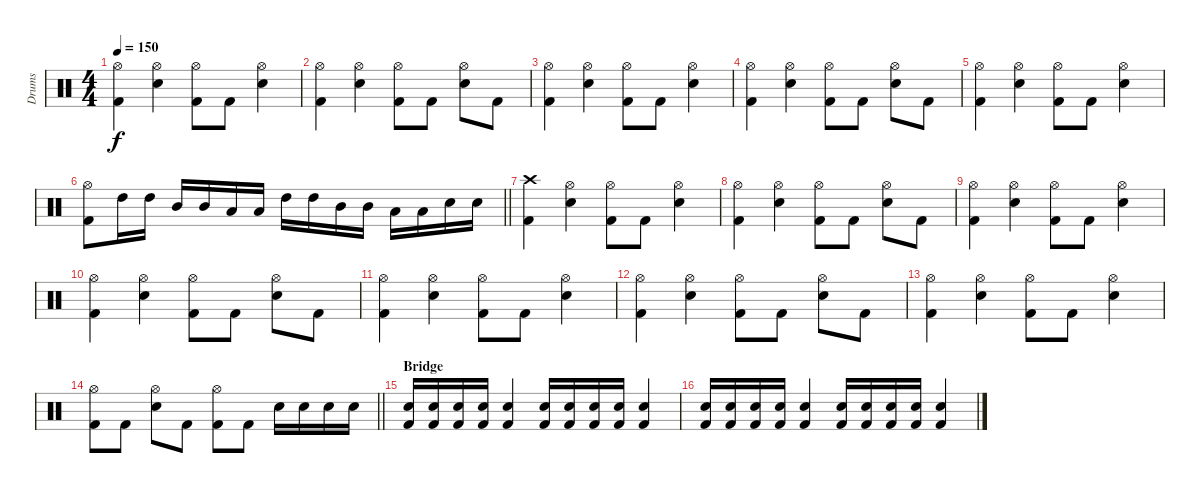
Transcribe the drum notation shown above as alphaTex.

\track ("Drums" "Drums") {instrument percussion}
\staff {score}
\articulation defaults
\ts (4 4)
\tempo 150
\clef neutral
\ks c
("Hi-Hat (open)" "Kick (hit) 2").4{dy f} ("Hi-Hat (open)" "Electric Snare (hit)").4 ("Hi-Hat (open)" "Kick (hit) 2").8 "Kick (hit) 2".8 ("Hi-Hat (open)" "Electric Snare (hit)").4 |
("Hi-Hat (open)" "Kick (hit) 2").4 ("Hi-Hat (open)" "Electric Snare (hit)").4 ("Hi-Hat (open)" "Kick (hit) 2").8 "Kick (hit) 2".8 ("Hi-Hat (open)" "Electric Snare (hit)").8 "Kick (hit) 2".8 |
("Hi-Hat (open)" "Kick (hit) 2").4 ("Hi-Hat (open)" "Electric Snare (hit)").4 ("Hi-Hat (open)" "Kick (hit) 2").8 "Kick (hit) 2".8 ("Hi-Hat (open)" "Electric Snare (hit)").4 |
("Hi-Hat (open)" "Kick (hit) 2").4 ("Hi-Hat (open)" "Electric Snare (hit)").4 ("Hi-Hat (open)" "Kick (hit) 2").8 "Kick (hit) 2".8 ("Hi-Hat (open)" "Electric Snare (hit)").8 "Kick (hit) 2".8 |
("Hi-Hat (open)" "Kick (hit) 2").4 ("Hi-Hat (open)" "Electric Snare (hit)").4 ("Hi-Hat (open)" "Kick (hit) 2").8 "Kick (hit) 2".8 ("Hi-Hat (open)" "Electric Snare (hit)").4 |
\barLineRight lightlight
("Hi-Hat (open)" "Kick (hit) 2").8 "High Tom (hit)".16 "High Tom (hit)".16 "Mid Tom (hit)".16 "Mid Tom (hit)".16 "Low Tom (hit)".16 "Low Tom (hit)".16 "High Tom (hit)".16 "High Tom (hit)".16 "Mid Tom (hit)".16 "Mid Tom (hit)".16 "Low Tom (hit)".16 "Low Tom (hit)".16 "Electric Snare (hit)".16 "Electric Snare (hit)".16 |
("Crash high (hit)" "Kick (hit) 2").4 ("Hi-Hat (open)" "Electric Snare (hit)").4 ("Hi-Hat (open)" "Kick (hit) 2").8 "Kick (hit) 2".8 ("Hi-Hat (open)" "Electric Snare (hit)").4 |
("Hi-Hat (open)" "Kick (hit) 2").4 ("Hi-Hat (open)" "Electric Snare (hit)").4 ("Hi-Hat (open)" "Kick (hit) 2").8 "Kick (hit) 2".8 ("Hi-Hat (open)" "Electric Snare (hit)").8 "Kick (hit) 2".8 |
("Hi-Hat (open)" "Kick (hit) 2").4 ("Hi-Hat (open)" "Electric Snare (hit)").4 ("Hi-Hat (open)" "Kick (hit) 2").8 "Kick (hit) 2".8 ("Hi-Hat (open)" "Electric Snare (hit)").4 |
("Hi-Hat (open)" "Kick (hit) 2").4 ("Hi-Hat (open)" "Electric Snare (hit)").4 ("Hi-Hat (open)" "Kick (hit) 2").8 "Kick (hit) 2".8 ("Hi-Hat (open)" "Electric Snare (hit)").8 "Kick (hit) 2".8 |
("Hi-Hat (open)" "Kick (hit) 2").4 ("Hi-Hat (open)" "Electric Snare (hit)").4 ("Hi-Hat (open)" "Kick (hit) 2").8 "Kick (hit) 2".8 ("Hi-Hat (open)" "Electric Snare (hit)").4 |
("Hi-Hat (open)" "Kick (hit) 2").4 ("Hi-Hat (open)" "Electric Snare (hit)").4 ("Hi-Hat (open)" "Kick (hit) 2").8 "Kick (hit) 2".8 ("Hi-Hat (open)" "Electric Snare (hit)").8 "Kick (hit) 2".8 |
("Hi-Hat (open)" "Kick (hit) 2").4 ("Hi-Hat (open)" "Electric Snare (hit)").4 ("Hi-Hat (open)" "Kick (hit) 2").8 "Kick (hit) 2".8 ("Hi-Hat (open)" "Electric Snare (hit)").4 |
\barLineRight lightlight
("Hi-Hat (open)" "Kick (hit) 2").8 "Kick (hit) 2".8 ("Hi-Hat (open)" "Electric Snare (hit)").8 "Kick (hit) 2".8 ("Hi-Hat (open)" "Kick (hit) 2").8 "Kick (hit) 2".8 "Electric Snare (hit)".16 "Electric Snare (hit)".16 "Electric Snare (hit)".16 "Electric Snare (hit)".16 |
\section ("" "Bridge")
("Electric Snare (hit)" "Kick (hit) 2").16 ("Electric Snare (hit)" "Kick (hit) 2").16 ("Electric Snare (hit)" "Kick (hit) 2").16 ("Electric Snare (hit)" "Kick (hit) 2").16 ("Electric Snare (hit)" "Kick (hit) 2").4 ("Electric Snare (hit)" "Kick (hit) 2").16 ("Electric Snare (hit)" "Kick (hit) 2").16 ("Electric Snare (hit)" "Kick (hit) 2").16 ("Electric Snare (hit)" "Kick (hit) 2").16 ("Electric Snare (hit)" "Kick (hit) 2").4 |
("Electric Snare (hit)" "Kick (hit) 2").16 ("Electric Snare (hit)" "Kick (hit) 2").16 ("Electric Snare (hit)" "Kick (hit) 2").16 ("Electric Snare (hit)" "Kick (hit) 2").16 ("Electric Snare (hit)" "Kick (hit) 2").4 ("Electric Snare (hit)" "Kick (hit) 2").16 ("Electric Snare (hit)" "Kick (hit) 2").16 ("Electric Snare (hit)" "Kick (hit) 2").16 ("Electric Snare (hit)" "Kick (hit) 2").16 ("Electric Snare (hit)" "Kick (hit) 2").4
